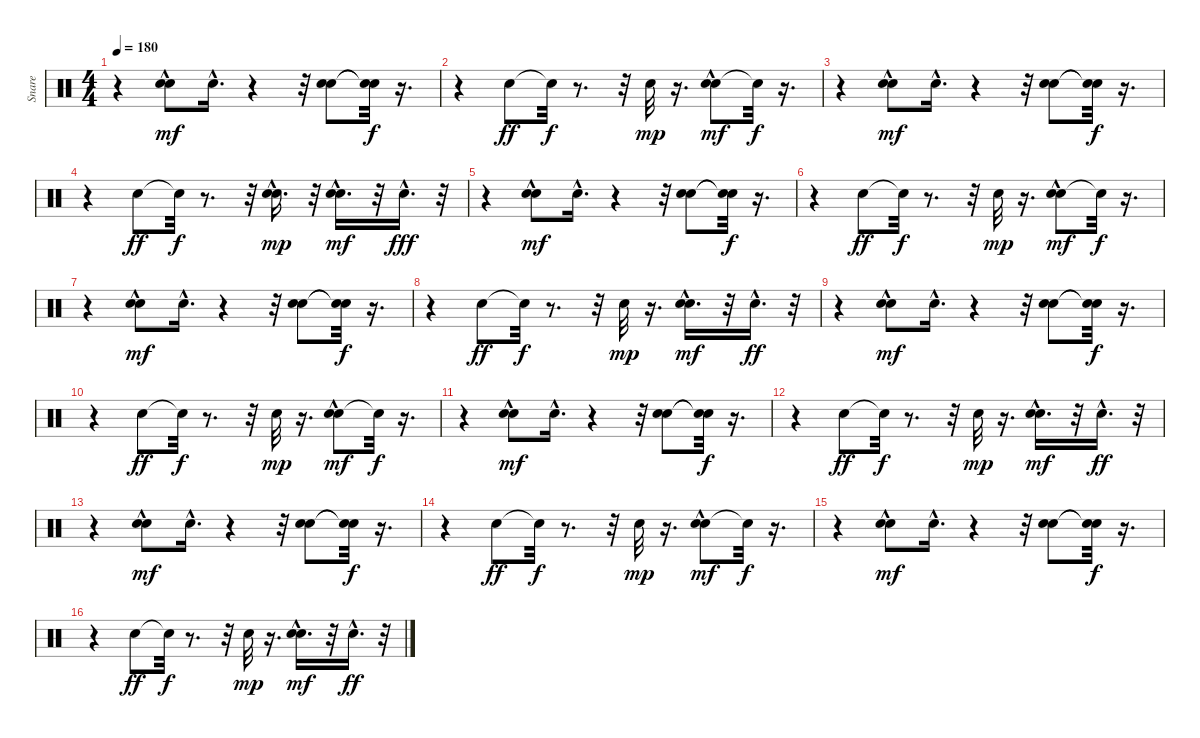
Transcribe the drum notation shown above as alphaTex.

\track ("Snare" "Snare") {instrument percussion}
\staff {score}
\articulation defaults
\ts (4 4)
\tempo 180
\clef neutral
\ks c
r.4{dy ff} ("Snare (hit) 2" "Hand Clap (hit)"{hac}).8{dy mf} "Hand Clap (hit)"{hac}.16{d} r.4 r.32 ("Snare (hit) 2" "Hand Clap (hit)").8 ("Snare (hit)"{t} "Snare (hit)"{t}).32{dy f} r.16{d} |
r.4 "Snare (hit) 2".8{dy ff} "Snare (hit)"{t}.32{dy f} r.8{d} r.32 "Hand Clap (hit)".32{dy mp} r.16{d} ("Snare (hit) 2" "Hand Clap (hit)"{hac}).8{dy mf} "Snare (hit)"{t}.32{dy f} r.16{d} |
r.4 ("Snare (hit) 2" "Hand Clap (hit)"{hac}).8{dy mf} "Hand Clap (hit)"{hac}.16{d} r.4 r.32 ("Snare (hit) 2" "Hand Clap (hit)").8 ("Snare (hit)"{t} "Snare (hit)"{t}).32{dy f} r.16{d} |
r.4 "Snare (hit) 2".8{dy ff} "Snare (hit)"{t}.32{dy f} r.8{d} r.32 ("Snare (hit) 2"{hac} "Hand Clap (hit)").16{d dy mp} r.32 ("Snare (hit) 2"{hac} "Hand Clap (hit)"{hac}).16{d dy mf} r.32 "Snare (hit) 2"{hac}.16{d dy fff} r.32 |
r.4 ("Snare (hit) 2" "Hand Clap (hit)"{hac}).8{dy mf} "Hand Clap (hit)"{hac}.16{d} r.4 r.32 ("Snare (hit) 2" "Hand Clap (hit)").8 ("Snare (hit)"{t} "Snare (hit)"{t}).32{dy f} r.16{d} |
r.4 "Snare (hit) 2".8{dy ff} "Snare (hit)"{t}.32{dy f} r.8{d} r.32 "Hand Clap (hit)".32{dy mp} r.16{d} ("Snare (hit) 2" "Hand Clap (hit)"{hac}).8{dy mf} "Snare (hit)"{t}.32{dy f} r.16{d} |
r.4 ("Snare (hit) 2" "Hand Clap (hit)"{hac}).8{dy mf} "Hand Clap (hit)"{hac}.16{d} r.4 r.32 ("Snare (hit) 2" "Hand Clap (hit)").8 ("Snare (hit)"{t} "Snare (hit)"{t}).32{dy f} r.16{d} |
r.4 "Snare (hit) 2".8{dy ff} "Snare (hit)"{t}.32{dy f} r.8{d} r.32 "Hand Clap (hit)".32{dy mp} r.16{d} ("Snare (hit) 2"{hac} "Hand Clap (hit)"{hac}).16{d dy mf} r.32 "Snare (hit) 2"{hac}.16{d dy ff} r.32 |
r.4 ("Snare (hit) 2" "Hand Clap (hit)"{hac}).8{dy mf} "Hand Clap (hit)"{hac}.16{d} r.4 r.32 ("Snare (hit) 2" "Hand Clap (hit)").8 ("Snare (hit)"{t} "Snare (hit)"{t}).32{dy f} r.16{d} |
r.4 "Snare (hit) 2".8{dy ff} "Snare (hit)"{t}.32{dy f} r.8{d} r.32 "Hand Clap (hit)".32{dy mp} r.16{d} ("Snare (hit) 2" "Hand Clap (hit)"{hac}).8{dy mf} "Snare (hit)"{t}.32{dy f} r.16{d} |
r.4 ("Snare (hit) 2" "Hand Clap (hit)"{hac}).8{dy mf} "Hand Clap (hit)"{hac}.16{d} r.4 r.32 ("Snare (hit) 2" "Hand Clap (hit)").8 ("Snare (hit)"{t} "Snare (hit)"{t}).32{dy f} r.16{d} |
r.4 "Snare (hit) 2".8{dy ff} "Snare (hit)"{t}.32{dy f} r.8{d} r.32 "Hand Clap (hit)".32{dy mp} r.16{d} ("Snare (hit) 2"{hac} "Hand Clap (hit)"{hac}).16{d dy mf} r.32 "Snare (hit) 2"{hac}.16{d dy ff} r.32 |
r.4 ("Snare (hit) 2" "Hand Clap (hit)"{hac}).8{dy mf} "Hand Clap (hit)"{hac}.16{d} r.4 r.32 ("Snare (hit) 2" "Hand Clap (hit)").8 ("Snare (hit)"{t} "Snare (hit)"{t}).32{dy f} r.16{d} |
r.4 "Snare (hit) 2".8{dy ff} "Snare (hit)"{t}.32{dy f} r.8{d} r.32 "Hand Clap (hit)".32{dy mp} r.16{d} ("Snare (hit) 2" "Hand Clap (hit)"{hac}).8{dy mf} "Snare (hit)"{t}.32{dy f} r.16{d} |
r.4 ("Snare (hit) 2" "Hand Clap (hit)"{hac}).8{dy mf} "Hand Clap (hit)"{hac}.16{d} r.4 r.32 ("Snare (hit) 2" "Hand Clap (hit)").8 ("Snare (hit)"{t} "Snare (hit)"{t}).32{dy f} r.16{d} |
r.4 "Snare (hit) 2".8{dy ff} "Snare (hit)"{t}.32{dy f} r.8{d} r.32 "Hand Clap (hit)".32{dy mp} r.16{d} ("Snare (hit) 2"{hac} "Hand Clap (hit)"{hac}).16{d dy mf} r.32 "Snare (hit) 2"{hac}.16{d dy ff} r.32
